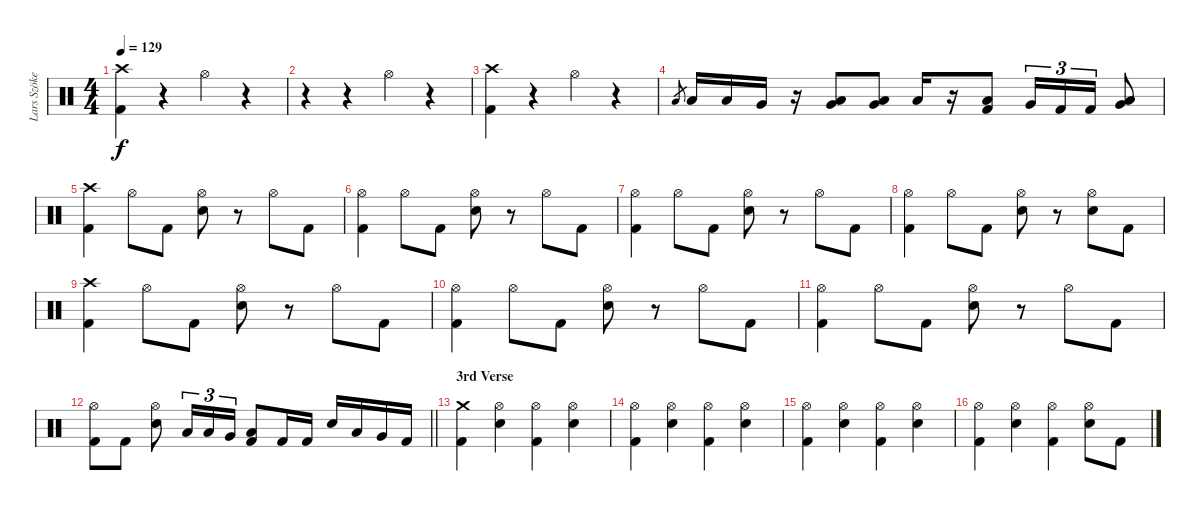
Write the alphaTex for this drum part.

\track ("Lars Szöke" "Lars Szöke") {instrument percussion}
\staff {score}
\articulation defaults
\ts (4 4)
\tempo 129
\clef neutral
\ks c
("Crash high (hit)" "Kick (hit) 2").4{dy f} r.4 "Hi-Hat (open)".4 r.4 |
r.4 r.4 "Hi-Hat (open)".4 r.4 |
("Crash high (hit)" "Kick (hit) 2").4 r.4 "Hi-Hat (open)".4 r.4 |
"Low Tom (hit)".8{gr} "Low Tom (hit)".16 "Low Tom (hit)".16 "Very Low Tom (hit)".16 r.16 ("Very Low Tom (hit)" "Low Floor Tom (hit)").8 ("Very Low Tom (hit)" "Low Floor Tom (hit)").8 "Low Floor Tom (hit)".16 r.16 ("Low Floor Tom (hit)" "Kick (hit) 2").8 "Very Low Tom (hit)".16{tu (3 2)} "Kick (hit) 2".16{tu (3 2)} "Kick (hit) 2".16{tu (3 2)} ("Very Low Tom (hit)" "Low Floor Tom (hit)").8 |
("Crash high (hit)" "Kick (hit) 2").4 "Hi-Hat (open)".8 "Kick (hit) 2".8 ("Hi-Hat (open)" "Snare (hit) 2").8 r.8 "Hi-Hat (open)".8 "Kick (hit) 2".8 |
("Hi-Hat (open)" "Kick (hit) 2").4 "Hi-Hat (open)".8 "Kick (hit) 2".8 ("Hi-Hat (open)" "Snare (hit) 2").8 r.8 "Hi-Hat (open)".8 "Kick (hit) 2".8 |
("Hi-Hat (open)" "Kick (hit) 2").4 "Hi-Hat (open)".8 "Kick (hit) 2".8 ("Hi-Hat (open)" "Snare (hit) 2").8 r.8 "Hi-Hat (open)".8 "Kick (hit) 2".8 |
("Hi-Hat (open)" "Kick (hit) 2").4 "Hi-Hat (open)".8 "Kick (hit) 2".8 ("Hi-Hat (open)" "Snare (hit) 2").8 r.8 ("Hi-Hat (open)" "Snare (hit) 2").8 "Kick (hit) 2".8 |
("Crash high (hit)" "Kick (hit) 2").4 "Hi-Hat (open)".8 "Kick (hit) 2".8 ("Hi-Hat (open)" "Snare (hit) 2").8 r.8 "Hi-Hat (open)".8 "Kick (hit) 2".8 |
("Hi-Hat (open)" "Kick (hit) 2").4 "Hi-Hat (open)".8 "Kick (hit) 2".8 ("Hi-Hat (open)" "Snare (hit) 2").8 r.8 "Hi-Hat (open)".8 "Kick (hit) 2".8 |
("Hi-Hat (open)" "Kick (hit) 2").4 "Hi-Hat (open)".8 "Kick (hit) 2".8 ("Hi-Hat (open)" "Snare (hit) 2").8 r.8 "Hi-Hat (open)".8 "Kick (hit) 2".8 |
\barLineRight lightlight
("Hi-Hat (open)" "Kick (hit) 2").8 "Kick (hit) 2".8 ("Hi-Hat (open)" "Snare (hit) 2").8 "Low Tom (hit)".16{tu (3 2)} "Low Tom (hit)".16{tu (3 2)} "Very Low Tom (hit)".16{tu (3 2)} ("Low Floor Tom (hit)" "Kick (hit) 2").8 "Kick (hit) 2".16 "Kick (hit) 2".16 "Snare (hit) 2".16 "Low Tom (hit)".16 "Very Low Tom (hit)".16 "Kick (hit) 2".16 |
\section ("" "3rd Verse")
("Crash medium (hit)" "Kick (hit) 2").4 ("Hi-Hat (open)" "Snare (hit) 2").4 ("Hi-Hat (open)" "Kick (hit) 2").4 ("Hi-Hat (open)" "Snare (hit) 2").4 |
("Hi-Hat (open)" "Kick (hit) 2").4 ("Hi-Hat (open)" "Snare (hit) 2").4 ("Hi-Hat (open)" "Kick (hit) 2").4 ("Hi-Hat (open)" "Snare (hit) 2").4 |
("Hi-Hat (open)" "Kick (hit) 2").4 ("Hi-Hat (open)" "Snare (hit) 2").4 ("Hi-Hat (open)" "Kick (hit) 2").4 ("Hi-Hat (open)" "Snare (hit) 2").4 |
("Hi-Hat (open)" "Kick (hit) 2").4 ("Hi-Hat (open)" "Snare (hit) 2").4 ("Hi-Hat (open)" "Kick (hit) 2").4 ("Hi-Hat (open)" "Snare (hit) 2").8 "Kick (hit) 2".8
